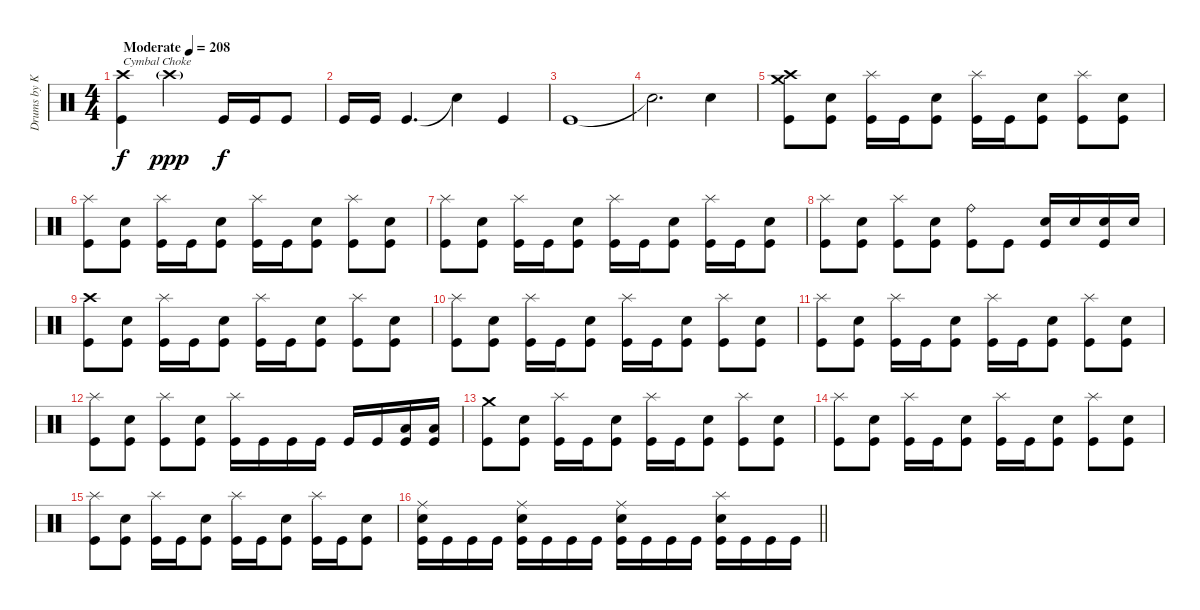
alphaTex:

\track ("Drums by Kwonnie" "Drums by K") {instrument percussion}
\staff {score}
\articulation defaults
\ts (4 4)
\tempo (208 "Moderate")
\clef neutral
\ks c
("Crash high (hit)" "Kick (hit)").4{txt "Cymbal Choke" dy f} "Crash high (hit)"{g}.2{dy ppp volume 0} "Kick (hit)".16{dy f volume 10} "Kick (hit)".16 "Kick (hit)".8 |
"Kick (hit)".16 "Kick (hit)".16 "Kick (hit)".4{d} "Snare (hit)"{t}.4 "Kick (hit)".4 |
"Kick (hit)".1 |
"Snare (hit)"{t}.2{d} "Electric Snare (hit)".4 |
("Crash high (hit)" "Crash medium (hit)" "Kick (hit)").8 ("Electric Snare (hit)" "Kick (hit)").8 ("Splash (hit)" "Kick (hit)").16 "Kick (hit)".16 ("Electric Snare (hit)" "Kick (hit)").8 ("Splash (hit)" "Kick (hit)").16 "Kick (hit)".16 ("Electric Snare (hit)" "Kick (hit)").8 ("Splash (hit)" "Kick (hit)").8 ("Electric Snare (hit)" "Kick (hit)").8 |
("Splash (hit)" "Kick (hit)").8 ("Electric Snare (hit)" "Kick (hit)").8 ("Splash (hit)" "Kick (hit)").16 "Kick (hit)".16 ("Electric Snare (hit)" "Kick (hit)").8 ("Splash (hit)" "Kick (hit)").16 "Kick (hit)".16 ("Electric Snare (hit)" "Kick (hit)").8 ("Splash (hit)" "Kick (hit)").8 ("Electric Snare (hit)" "Kick (hit)").8 |
("Splash (hit)" "Kick (hit)").8 ("Electric Snare (hit)" "Kick (hit)").8 ("Splash (hit)" "Kick (hit)").16 "Kick (hit)".16 ("Electric Snare (hit)" "Kick (hit)").8 ("Splash (hit)" "Kick (hit)").16 "Kick (hit)".16 ("Electric Snare (hit)" "Kick (hit)").8 ("Splash (hit)" "Kick (hit)").16 "Kick (hit)".16 ("Electric Snare (hit)" "Kick (hit)").8 |
("Splash (hit)" "Kick (hit)").8 ("Electric Snare (hit)" "Kick (hit)").8 ("Splash (hit)" "Kick (hit)").8 ("Electric Snare (hit)" "Kick (hit)").8 ("Ride (bell)" "Kick (hit)").8 "Kick (hit)".8 ("Electric Snare (hit)" "Kick (hit)").16 "Electric Snare (hit)".16 ("Electric Snare (hit)" "Kick (hit)").16 "Electric Snare (hit)".16 |
("Crash high (hit)" "Kick (hit)").8 ("Electric Snare (hit)" "Kick (hit)").8 ("Splash (hit)" "Kick (hit)").16 "Kick (hit)".16 ("Electric Snare (hit)" "Kick (hit)").8 ("Splash (hit)" "Kick (hit)").16 "Kick (hit)".16 ("Electric Snare (hit)" "Kick (hit)").8 ("Splash (hit)" "Kick (hit)").8 ("Electric Snare (hit)" "Kick (hit)").8 |
("Splash (hit)" "Kick (hit)").8 ("Electric Snare (hit)" "Kick (hit)").8 ("Splash (hit)" "Kick (hit)").16 "Kick (hit)".16 ("Electric Snare (hit)" "Kick (hit)").8 ("Splash (hit)" "Kick (hit)").16 "Kick (hit)".16 ("Electric Snare (hit)" "Kick (hit)").8 ("Splash (hit)" "Kick (hit)").8 ("Electric Snare (hit)" "Kick (hit)").8 |
("Splash (hit)" "Kick (hit)").8 ("Electric Snare (hit)" "Kick (hit)").8 ("Splash (hit)" "Kick (hit)").16 "Kick (hit)".16 ("Electric Snare (hit)" "Kick (hit)").8 ("Splash (hit)" "Kick (hit)").16 "Kick (hit)".16 ("Electric Snare (hit)" "Kick (hit)").8 ("Splash (hit)" "Kick (hit)").8 ("Electric Snare (hit)" "Kick (hit)").8 |
("Splash (hit)" "Kick (hit)").8 ("Electric Snare (hit)" "Kick (hit)").8 ("Splash (hit)" "Kick (hit)").8 ("Electric Snare (hit)" "Kick (hit)").8 ("Splash (hit)" "Kick (hit)").16 "Kick (hit)".16 "Kick (hit)".16 "Kick (hit)".16 "Kick (hit)".16 "Kick (hit)".16 ("Low Floor Tom (hit)" "Kick (hit)").16 ("Low Floor Tom (hit)" "Kick (hit)").16 |
("Crash medium (hit)" "Kick (hit)").8 ("Electric Snare (hit)" "Kick (hit)").8 ("Splash (hit)" "Kick (hit)").16 "Kick (hit)".16 ("Electric Snare (hit)" "Kick (hit)").8 ("Splash (hit)" "Kick (hit)").16 "Kick (hit)".16 ("Electric Snare (hit)" "Kick (hit)").8 ("Splash (hit)" "Kick (hit)").8 ("Electric Snare (hit)" "Kick (hit)").8 |
("Splash (hit)" "Kick (hit)").8 ("Electric Snare (hit)" "Kick (hit)").8 ("Splash (hit)" "Kick (hit)").16 "Kick (hit)".16 ("Electric Snare (hit)" "Kick (hit)").8 ("Splash (hit)" "Kick (hit)").16 "Kick (hit)".16 ("Electric Snare (hit)" "Kick (hit)").8 ("Splash (hit)" "Kick (hit)").8 ("Electric Snare (hit)" "Kick (hit)").8 |
("Splash (hit)" "Kick (hit)").8 ("Electric Snare (hit)" "Kick (hit)").8 ("Splash (hit)" "Kick (hit)").16 "Kick (hit)".16 ("Electric Snare (hit)" "Kick (hit)").8 ("Splash (hit)" "Kick (hit)").16 "Kick (hit)".16 ("Electric Snare (hit)" "Kick (hit)").8 ("Splash (hit)" "Kick (hit)").16 "Kick (hit)".16 ("Electric Snare (hit)" "Kick (hit)").8 |
\barLineRight lightlight
("Ride (middle)" "Electric Snare (hit)" "Kick (hit)").16 "Kick (hit)".16 "Kick (hit)".16 "Kick (hit)".16 ("Ride (middle)" "Electric Snare (hit)" "Kick (hit)").16 "Kick (hit)".16 "Kick (hit)".16 "Kick (hit)".16 ("Ride (middle)" "Electric Snare (hit)" "Kick (hit)").16 "Kick (hit)".16 "Kick (hit)".16 "Kick (hit)".16 ("Splash (hit)" "Electric Snare (hit)" "Kick (hit)").16 "Kick (hit)".16 "Kick (hit)".16 "Kick (hit)".16
